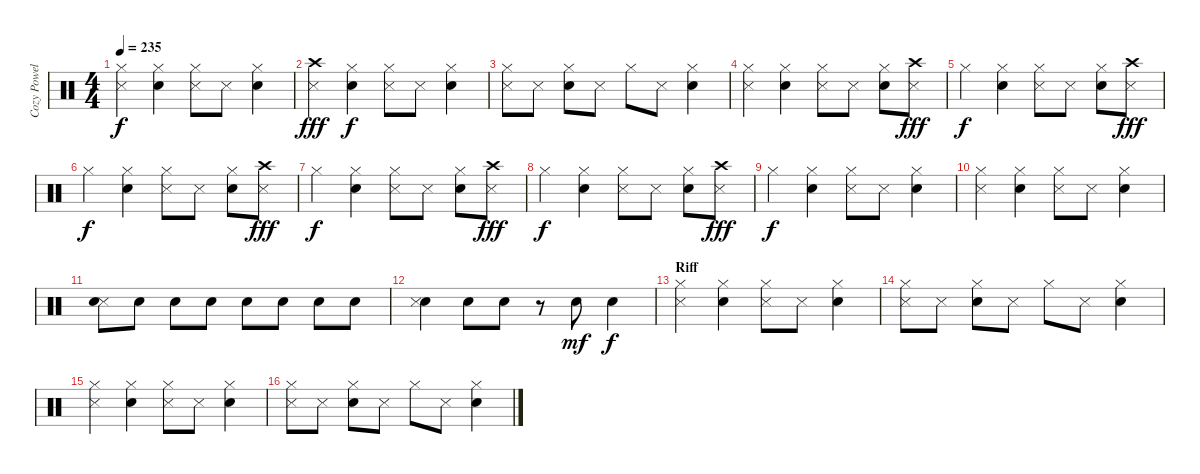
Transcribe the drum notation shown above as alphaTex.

\track ("Cozy Powell" "Cozy Powel") {instrument percussion}
\staff {score}
\articulation defaults
\ts (4 4)
\tempo 235
\clef neutral
\ks c
("Metronome (hit)" "Hi-Hat (closed)").4{dy f} ("Electric Snare (hit)" "Hi-Hat (closed)").4 ("Metronome (hit)" "Hi-Hat (closed)").8 "Metronome (hit)".8 ("Hi-Hat (closed)" "Electric Snare (hit)").4 |
("Crash high (hit)" "Metronome (hit)").4{dy fff} ("Electric Snare (hit)" "Hi-Hat (closed)").4{dy f} ("Hi-Hat (closed)" "Metronome (hit)").8 "Metronome (hit)".8 ("Hi-Hat (closed)" "Electric Snare (hit)").4 |
("Metronome (hit)" "Hi-Hat (closed)").8 "Metronome (hit)".8 ("Electric Snare (hit)" "Hi-Hat (closed)").8 "Metronome (hit)".8 "Hi-Hat (closed)".8 "Metronome (hit)".8 ("Electric Snare (hit)" "Hi-Hat (closed)").4 |
("Hi-Hat (closed)" "Metronome (hit)").4 ("Hi-Hat (closed)" "Electric Snare (hit)").4 ("Metronome (hit)" "Hi-Hat (closed)").8 "Metronome (hit)".8 ("Electric Snare (hit)" "Hi-Hat (closed)").8 ("Metronome (hit)" "Crash high (hit)").8{dy fff} |
"Hi-Hat (closed)".4{dy f} ("Hi-Hat (closed)" "Electric Snare (hit)").4 ("Hi-Hat (closed)" "Metronome (hit)").8 "Metronome (hit)".8 ("Hi-Hat (closed)" "Electric Snare (hit)").8 ("Crash high (hit)" "Metronome (hit)").8{dy fff} |
"Hi-Hat (closed)".4{dy f} ("Hi-Hat (closed)" "Electric Snare (hit)").4 ("Metronome (hit)" "Hi-Hat (closed)").8 "Metronome (hit)".8 ("Hi-Hat (closed)" "Electric Snare (hit)").8 ("Crash high (hit)" "Metronome (hit)").8{dy fff} |
"Hi-Hat (closed)".4{dy f} ("Electric Snare (hit)" "Hi-Hat (closed)").4 ("Hi-Hat (closed)" "Metronome (hit)").8 "Metronome (hit)".8 ("Electric Snare (hit)" "Hi-Hat (closed)").8 ("Metronome (hit)" "Crash high (hit)").8{dy fff} |
"Hi-Hat (closed)".4{dy f} ("Electric Snare (hit)" "Hi-Hat (closed)").4 ("Hi-Hat (closed)" "Metronome (hit)").8 "Metronome (hit)".8 ("Electric Snare (hit)" "Hi-Hat (closed)").8 ("Metronome (hit)" "Crash high (hit)").8{dy fff} |
"Hi-Hat (closed)".4{dy f} ("Electric Snare (hit)" "Hi-Hat (closed)").4 ("Hi-Hat (closed)" "Metronome (hit)").8 "Metronome (hit)".8 ("Hi-Hat (closed)" "Electric Snare (hit)").4 |
("Hi-Hat (closed)" "Metronome (hit)").4 ("Electric Snare (hit)" "Hi-Hat (closed)").4 ("Hi-Hat (closed)" "Metronome (hit)").8 "Metronome (hit)".8 ("Electric Snare (hit)" "Hi-Hat (closed)").4 |
("Metronome (hit)" "Electric Snare (hit)").8 "Electric Snare (hit)".8 "Electric Snare (hit)".8 "Electric Snare (hit)".8 "Electric Snare (hit)".8 "Electric Snare (hit)".8 "Electric Snare (hit)".8 "Electric Snare (hit)".8 |
("Electric Snare (hit)" "Metronome (hit)").4 "Electric Snare (hit)".8 "Electric Snare (hit)".8 r.8 "Electric Snare (hit)".8{dy mf} "Electric Snare (hit)".4{dy f} |
\section ("" "Riff")
("Hi-Hat (closed)" "Metronome (hit)").4 ("Electric Snare (hit)" "Hi-Hat (closed)").4 ("Hi-Hat (closed)" "Metronome (hit)").8 "Metronome (hit)".8 ("Electric Snare (hit)" "Hi-Hat (closed)").4 |
("Hi-Hat (closed)" "Metronome (hit)").8 "Metronome (hit)".8 ("Hi-Hat (closed)" "Electric Snare (hit)").8 "Metronome (hit)".8 "Hi-Hat (closed)".8 "Metronome (hit)".8 ("Hi-Hat (closed)" "Electric Snare (hit)").4 |
("Metronome (hit)" "Hi-Hat (closed)").4 ("Electric Snare (hit)" "Hi-Hat (closed)").4 ("Metronome (hit)" "Hi-Hat (closed)").8 "Metronome (hit)".8 ("Electric Snare (hit)" "Hi-Hat (closed)").4 |
("Metronome (hit)" "Hi-Hat (closed)").8 "Metronome (hit)".8 ("Hi-Hat (closed)" "Electric Snare (hit)").8 "Metronome (hit)".8 "Hi-Hat (closed)".8 "Metronome (hit)".8 ("Electric Snare (hit)" "Hi-Hat (closed)").4
